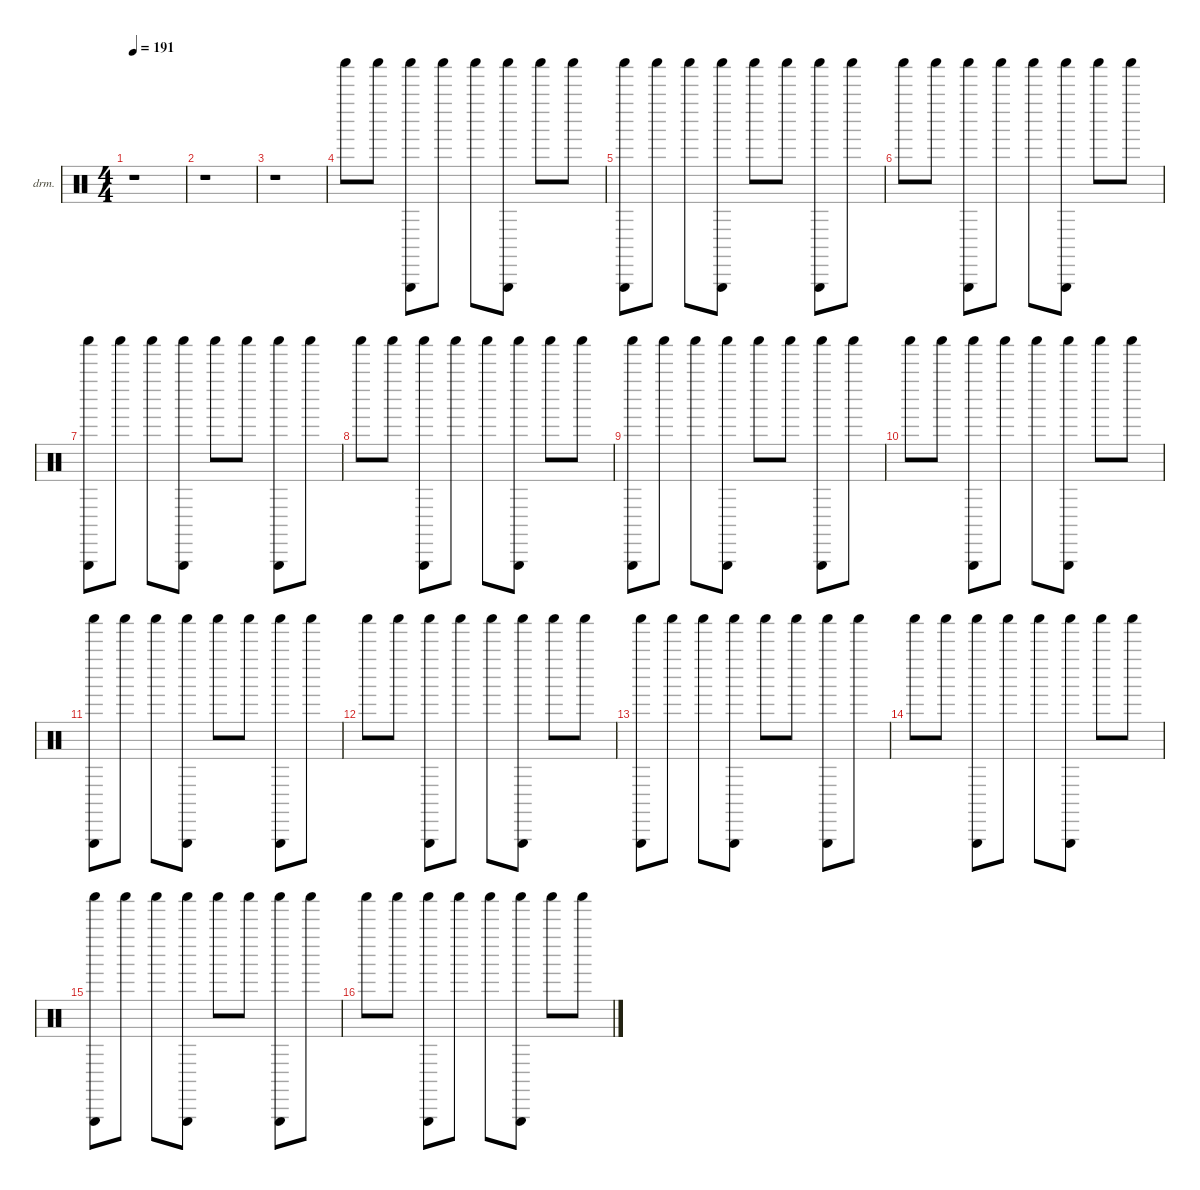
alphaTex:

\defaultSystemsLayout 4
\hideDynamics
\bracketExtendMode nobrackets
\firstSystemTrackNameOrientation horizontal
\otherSystemsTrackNameOrientation horizontal
\track ("Percussion" "drm.") {instrument percussion}
\staff {score}
\articulation defaults
\ts (4 4)
\tempo 191
\clef neutral
\ks c
r.1{dy mp beam Down} |
r.1{beam Down} |
r.1{beam Down} |
"Shaker (hit)".8{beam Down} "Shaker (hit)".8{beam Down} ("Shaker (hit)" "Triangle (hit)").8{dy fff beam Down} "Shaker (hit)".8{dy mp beam Down} "Shaker (hit)".8{beam Down} ("Shaker (hit)" "Triangle (hit)").8{beam Down} "Shaker (hit)".8{dy fff beam Down} "Shaker (hit)".8{dy mp beam Down} |
("Shaker (hit)" "Triangle (hit)").8{beam Down} "Shaker (hit)".8{beam Down} "Shaker (hit)".8{dy fff beam Down} ("Shaker (hit)" "Triangle (hit)").8{dy mp beam Down} "Shaker (hit)".8{beam Down} "Shaker (hit)".8{beam Down} ("Shaker (hit)" "Triangle (hit)").8{dy fff beam Down} "Shaker (hit)".8{dy mp beam Down} |
"Shaker (hit)".8{beam Down} "Shaker (hit)".8{beam Down} ("Shaker (hit)" "Triangle (hit)").8{dy fff beam Down} "Shaker (hit)".8{dy mp beam Down} "Shaker (hit)".8{beam Down} ("Shaker (hit)" "Triangle (hit)").8{beam Down} "Shaker (hit)".8{dy fff beam Down} "Shaker (hit)".8{dy mp beam Down} |
("Shaker (hit)" "Triangle (hit)").8{beam Down} "Shaker (hit)".8{beam Down} "Shaker (hit)".8{dy fff beam Down} ("Shaker (hit)" "Triangle (hit)").8{dy mp beam Down} "Shaker (hit)".8{beam Down} "Shaker (hit)".8{beam Down} ("Shaker (hit)" "Triangle (hit)").8{dy fff beam Down} "Shaker (hit)".8{dy mp beam Down} |
"Shaker (hit)".8{beam Down} "Shaker (hit)".8{beam Down} ("Shaker (hit)" "Triangle (hit)").8{dy fff beam Down} "Shaker (hit)".8{dy mp beam Down} "Shaker (hit)".8{beam Down} ("Shaker (hit)" "Triangle (hit)").8{beam Down} "Shaker (hit)".8{dy fff beam Down} "Shaker (hit)".8{dy mp beam Down} |
("Shaker (hit)" "Triangle (hit)").8{beam Down} "Shaker (hit)".8{beam Down} "Shaker (hit)".8{dy fff beam Down} ("Shaker (hit)" "Triangle (hit)").8{dy mp beam Down} "Shaker (hit)".8{beam Down} "Shaker (hit)".8{beam Down} ("Shaker (hit)" "Triangle (hit)").8{dy fff beam Down} "Shaker (hit)".8{dy mp beam Down} |
"Shaker (hit)".8{beam Down} "Shaker (hit)".8{beam Down} ("Shaker (hit)" "Triangle (hit)").8{dy fff beam Down} "Shaker (hit)".8{dy mp beam Down} "Shaker (hit)".8{beam Down} ("Shaker (hit)" "Triangle (hit)").8{beam Down} "Shaker (hit)".8{dy fff beam Down} "Shaker (hit)".8{dy mp beam Down} |
("Shaker (hit)" "Triangle (hit)").8{beam Down} "Shaker (hit)".8{beam Down} "Shaker (hit)".8{dy fff beam Down} ("Shaker (hit)" "Triangle (hit)").8{dy mp beam Down} "Shaker (hit)".8{beam Down} "Shaker (hit)".8{beam Down} ("Shaker (hit)" "Triangle (hit)").8{dy fff beam Down} "Shaker (hit)".8{dy mp beam Down} |
"Shaker (hit)".8{beam Down} "Shaker (hit)".8{beam Down} ("Shaker (hit)" "Triangle (hit)").8{dy fff beam Down} "Shaker (hit)".8{dy mp beam Down} "Shaker (hit)".8{beam Down} ("Shaker (hit)" "Triangle (hit)").8{beam Down} "Shaker (hit)".8{dy fff beam Down} "Shaker (hit)".8{dy mp beam Down} |
("Shaker (hit)" "Triangle (hit)").8{beam Down} "Shaker (hit)".8{beam Down} "Shaker (hit)".8{dy fff beam Down} ("Shaker (hit)" "Triangle (hit)").8{dy mp beam Down} "Shaker (hit)".8{beam Down} "Shaker (hit)".8{beam Down} ("Shaker (hit)" "Triangle (hit)").8{dy fff beam Down} "Shaker (hit)".8{dy mp beam Down} |
"Shaker (hit)".8{beam Down} "Shaker (hit)".8{beam Down} ("Shaker (hit)" "Triangle (hit)").8{dy fff beam Down} "Shaker (hit)".8{dy mp beam Down} "Shaker (hit)".8{beam Down} ("Shaker (hit)" "Triangle (hit)").8{beam Down} "Shaker (hit)".8{dy fff beam Down} "Shaker (hit)".8{dy mp beam Down} |
("Shaker (hit)" "Triangle (hit)").8{beam Down} "Shaker (hit)".8{beam Down} "Shaker (hit)".8{dy fff beam Down} ("Shaker (hit)" "Triangle (hit)").8{dy mp beam Down} "Shaker (hit)".8{beam Down} "Shaker (hit)".8{beam Down} ("Shaker (hit)" "Triangle (hit)").8{dy fff beam Down} "Shaker (hit)".8{dy mp beam Down} |
"Shaker (hit)".8{beam Down} "Shaker (hit)".8{beam Down} ("Shaker (hit)" "Triangle (hit)").8{dy fff beam Down} "Shaker (hit)".8{dy mp beam Down} "Shaker (hit)".8{beam Down} ("Shaker (hit)" "Triangle (hit)").8{beam Down} "Shaker (hit)".8{dy fff beam Down} "Shaker (hit)".8{dy mp beam Down}
